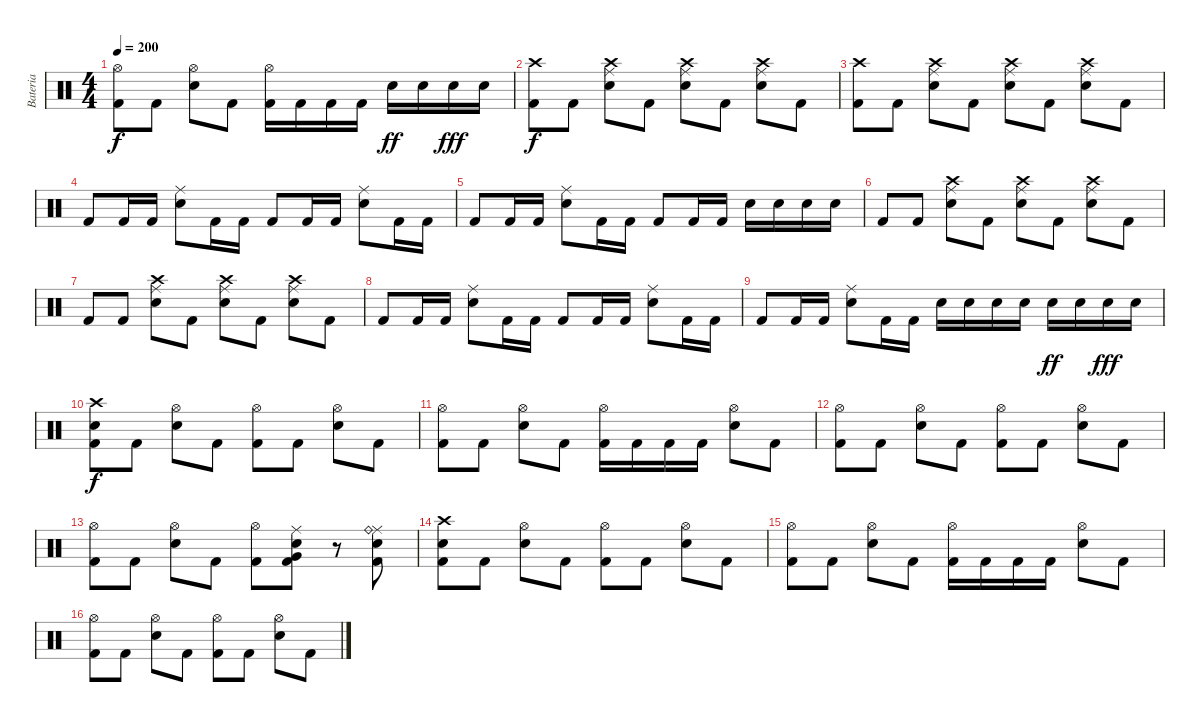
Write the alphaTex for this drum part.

\track ("Bateria" "Bateria") {instrument percussion}
\staff {score}
\articulation defaults
\ts (4 4)
\tempo 200
\clef neutral
\ks c
("Kick (hit) 2" "Hi-Hat (open)").8{dy f} "Kick (hit) 2".8 ("Electric Snare (hit)" "Hi-Hat (open)").8 "Kick (hit) 2".8 ("Kick (hit) 2" "Hi-Hat (open)").16 "Kick (hit) 2".16 "Kick (hit) 2".16 "Kick (hit) 2".16 "Electric Snare (hit)".16{dy ff} "Electric Snare (hit)".16 "Electric Snare (hit)".16{dy fff} "Electric Snare (hit)".16 |
("Kick (hit) 2" "Crash high (hit)").8{dy f} "Kick (hit) 2".8 ("Crash high (hit)" "Electric Snare (hit)" "Ride (middle)").8 "Kick (hit) 2".8 ("Crash high (hit)" "Electric Snare (hit)" "Ride (middle)").8 "Kick (hit) 2".8 ("Crash high (hit)" "Electric Snare (hit)" "Ride (middle)").8 "Kick (hit) 2".8 |
("Kick (hit) 2" "Crash high (hit)").8 "Kick (hit) 2".8 ("Crash high (hit)" "Electric Snare (hit)" "Ride (middle)").8 "Kick (hit) 2".8 ("Crash high (hit)" "Electric Snare (hit)" "Ride (middle)").8 "Kick (hit) 2".8 ("Crash high (hit)" "Electric Snare (hit)" "Ride (middle)").8 "Kick (hit) 2".8 |
"Kick (hit) 2".8 "Kick (hit) 2".16 "Kick (hit) 2".16 ("Electric Snare (hit)" "Ride (middle)").8 "Kick (hit) 2".16 "Kick (hit) 2".16 "Kick (hit) 2".8 "Kick (hit) 2".16 "Kick (hit) 2".16 ("Electric Snare (hit)" "Ride (middle)").8 "Kick (hit) 2".16 "Kick (hit) 2".16 |
"Kick (hit) 2".8 "Kick (hit) 2".16 "Kick (hit) 2".16 ("Electric Snare (hit)" "Ride (middle)").8 "Kick (hit) 2".16 "Kick (hit) 2".16 "Kick (hit) 2".8 "Kick (hit) 2".16 "Kick (hit) 2".16 "Electric Snare (hit)".16 "Electric Snare (hit)".16 "Electric Snare (hit)".16 "Electric Snare (hit)".16 |
"Kick (hit) 2".8 "Kick (hit) 2".8 ("Crash high (hit)" "Electric Snare (hit)" "Ride (middle)").8 "Kick (hit) 2".8 ("Crash high (hit)" "Electric Snare (hit)" "Ride (middle)").8 "Kick (hit) 2".8 ("Crash high (hit)" "Electric Snare (hit)" "Ride (middle)").8 "Kick (hit) 2".8 |
"Kick (hit) 2".8 "Kick (hit) 2".8 ("Crash high (hit)" "Electric Snare (hit)" "Ride (middle)").8 "Kick (hit) 2".8 ("Crash high (hit)" "Electric Snare (hit)" "Ride (middle)").8 "Kick (hit) 2".8 ("Crash high (hit)" "Electric Snare (hit)" "Ride (middle)").8 "Kick (hit) 2".8 |
"Kick (hit) 2".8 "Kick (hit) 2".16 "Kick (hit) 2".16 ("Electric Snare (hit)" "Ride (middle)").8 "Kick (hit) 2".16 "Kick (hit) 2".16 "Kick (hit) 2".8 "Kick (hit) 2".16 "Kick (hit) 2".16 ("Electric Snare (hit)" "Ride (middle)").8 "Kick (hit) 2".16 "Kick (hit) 2".16 |
"Kick (hit) 2".8 "Kick (hit) 2".16 "Kick (hit) 2".16 ("Electric Snare (hit)" "Ride (middle)").8 "Kick (hit) 2".16 "Kick (hit) 2".16 "Electric Snare (hit)".16 "Electric Snare (hit)".16 "Electric Snare (hit)".16 "Electric Snare (hit)".16 "Electric Snare (hit)".16{dy ff} "Electric Snare (hit)".16 "Electric Snare (hit)".16{dy fff} "Electric Snare (hit)".16 |
("Kick (hit) 2" "Electric Snare (hit)" "Crash high (hit)").8{dy f} "Kick (hit) 2".8 ("Electric Snare (hit)" "Hi-Hat (open)").8 "Kick (hit) 2".8 ("Kick (hit) 2" "Hi-Hat (open)").8 "Kick (hit) 2".8 ("Electric Snare (hit)" "Hi-Hat (open)").8 "Kick (hit) 2".8 |
("Kick (hit) 2" "Hi-Hat (open)").8 "Kick (hit) 2".8 ("Electric Snare (hit)" "Hi-Hat (open)").8 "Kick (hit) 2".8 ("Kick (hit) 2" "Hi-Hat (open)").16 "Kick (hit) 2".16 "Kick (hit) 2".16 "Kick (hit) 2".16 ("Electric Snare (hit)" "Hi-Hat (open)").8 "Kick (hit) 2".8 |
("Kick (hit) 2" "Hi-Hat (open)").8 "Kick (hit) 2".8 ("Electric Snare (hit)" "Hi-Hat (open)").8 "Kick (hit) 2".8 ("Kick (hit) 2" "Hi-Hat (open)").8 "Kick (hit) 2".8 ("Electric Snare (hit)" "Hi-Hat (open)").8 "Kick (hit) 2".8 |
("Kick (hit) 2" "Hi-Hat (open)").8 "Kick (hit) 2".8 ("Electric Snare (hit)" "Hi-Hat (open)").8 "Kick (hit) 2".8 ("Kick (hit) 2" "Hi-Hat (open)").8 ("Kick (hit) 2" "Electric Snare (hit)" "Ride (middle)" "Very Low Tom (hit)").8 r.8 ("Kick (hit) 2" "Electric Snare (hit)" "Ride (middle)" "Ride (bell)").8 |
("Kick (hit) 2" "Electric Snare (hit)" "Crash high (hit)").8 "Kick (hit) 2".8 ("Electric Snare (hit)" "Hi-Hat (open)").8 "Kick (hit) 2".8 ("Kick (hit) 2" "Hi-Hat (open)").8 "Kick (hit) 2".8 ("Electric Snare (hit)" "Hi-Hat (open)").8 "Kick (hit) 2".8 |
("Kick (hit) 2" "Hi-Hat (open)").8 "Kick (hit) 2".8 ("Electric Snare (hit)" "Hi-Hat (open)").8 "Kick (hit) 2".8 ("Kick (hit) 2" "Hi-Hat (open)").16 "Kick (hit) 2".16 "Kick (hit) 2".16 "Kick (hit) 2".16 ("Electric Snare (hit)" "Hi-Hat (open)").8 "Kick (hit) 2".8 |
("Kick (hit) 2" "Hi-Hat (open)").8 "Kick (hit) 2".8 ("Electric Snare (hit)" "Hi-Hat (open)").8 "Kick (hit) 2".8 ("Kick (hit) 2" "Hi-Hat (open)").8 "Kick (hit) 2".8 ("Electric Snare (hit)" "Hi-Hat (open)").8 "Kick (hit) 2".8
